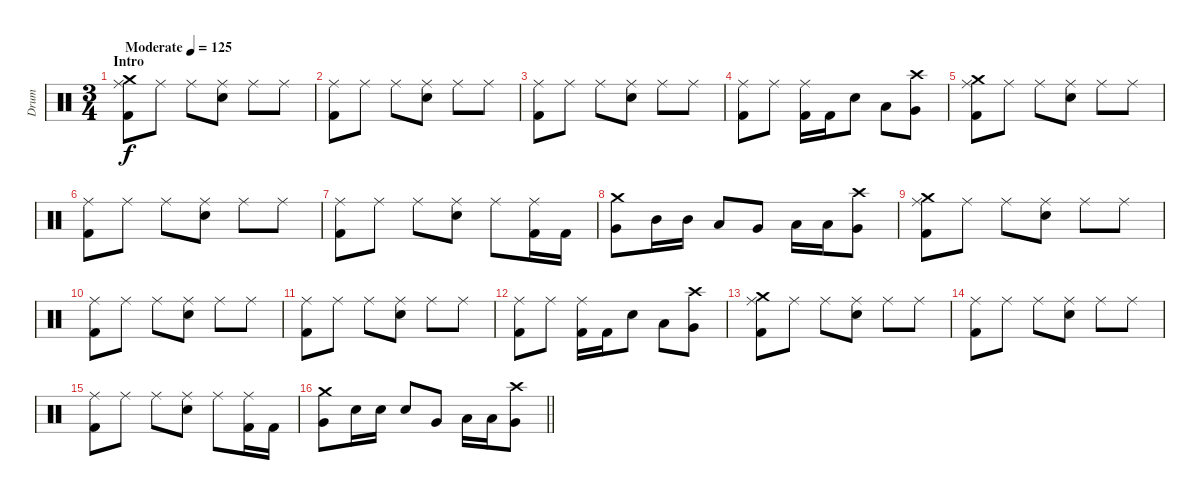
\track ("Drum" "Drum") {instrument percussion}
\staff {score}
\articulation defaults
\ts (3 4)
\section ("" "Intro")
\tempo (125 "Moderate")
\clef neutral
\ks c
("Crash medium (hit)" "Ride (middle)" "Kick (hit) 2").8{dy f} "Ride (middle)".8 "Ride (middle)".8 ("Ride (middle)" "Electric Snare (hit)").8 "Ride (middle)".8 "Ride (middle)".8 |
("Ride (middle)" "Kick (hit) 2").8 "Ride (middle)".8 "Ride (middle)".8 ("Ride (middle)" "Electric Snare (hit)").8 "Ride (middle)".8 "Ride (middle)".8 |
("Ride (middle)" "Kick (hit) 2").8 "Ride (middle)".8 "Ride (middle)".8 ("Ride (middle)" "Electric Snare (hit)").8 "Ride (middle)".8 "Ride (middle)".8 |
("Ride (middle)" "Kick (hit) 2").8 "Ride (middle)".8 ("Ride (middle)" "Kick (hit) 2").16 "Kick (hit) 2".16 "Electric Snare (hit)".8 "Low Tom (hit)".8 ("Crash high (hit)" "Very Low Tom (hit)").8 |
("Crash medium (hit)" "Ride (middle)" "Kick (hit) 2").8 "Ride (middle)".8 "Ride (middle)".8 ("Ride (middle)" "Electric Snare (hit)").8 "Ride (middle)".8 "Ride (middle)".8 |
("Ride (middle)" "Kick (hit) 2").8 "Ride (middle)".8 "Ride (middle)".8 ("Ride (middle)" "Electric Snare (hit)").8 "Ride (middle)".8 "Ride (middle)".8 |
("Ride (middle)" "Kick (hit) 2").8 "Ride (middle)".8 "Ride (middle)".8 ("Ride (middle)" "Electric Snare (hit)").8 "Ride (middle)".8 ("Ride (middle)" "Kick (hit) 2").16 "Kick (hit) 2".16 |
("Crash medium (hit)" "Very Low Tom (hit)").8 "Mid Tom (hit)".16 "Mid Tom (hit)".16 "Low Tom (hit)".8 "Very Low Tom (hit)".8 "Low Tom (hit)".16 "Low Tom (hit)".16 ("Crash high (hit)" "Very Low Tom (hit)").8 |
("Crash medium (hit)" "Ride (middle)" "Kick (hit) 2").8 "Ride (middle)".8 "Ride (middle)".8 ("Ride (middle)" "Electric Snare (hit)").8 "Ride (middle)".8 "Ride (middle)".8 |
("Ride (middle)" "Kick (hit) 2").8 "Ride (middle)".8 "Ride (middle)".8 ("Ride (middle)" "Electric Snare (hit)").8 "Ride (middle)".8 "Ride (middle)".8 |
("Ride (middle)" "Kick (hit) 2").8 "Ride (middle)".8 "Ride (middle)".8 ("Ride (middle)" "Electric Snare (hit)").8 "Ride (middle)".8 "Ride (middle)".8 |
("Ride (middle)" "Kick (hit) 2").8 "Ride (middle)".8 ("Ride (middle)" "Kick (hit) 2").16 "Kick (hit) 2".16 "Electric Snare (hit)".8 "Low Tom (hit)".8 ("Crash high (hit)" "Very Low Tom (hit)").8 |
("Crash medium (hit)" "Ride (middle)" "Kick (hit) 2").8 "Ride (middle)".8 "Ride (middle)".8 ("Ride (middle)" "Electric Snare (hit)").8 "Ride (middle)".8 "Ride (middle)".8 |
("Ride (middle)" "Kick (hit) 2").8 "Ride (middle)".8 "Ride (middle)".8 ("Ride (middle)" "Electric Snare (hit)").8 "Ride (middle)".8 "Ride (middle)".8 |
("Ride (middle)" "Kick (hit) 2").8 "Ride (middle)".8 "Ride (middle)".8 ("Ride (middle)" "Electric Snare (hit)").8 "Ride (middle)".8 ("Ride (middle)" "Kick (hit) 2").16 "Kick (hit) 2".16 |
\barLineRight lightlight
("Crash medium (hit)" "Very Low Tom (hit)").8 "Electric Snare (hit)".16 "Electric Snare (hit)".16 "Electric Snare (hit)".8 "Very Low Tom (hit)".8 "Low Tom (hit)".16 "Low Tom (hit)".16 ("Crash high (hit)" "Very Low Tom (hit)").8
